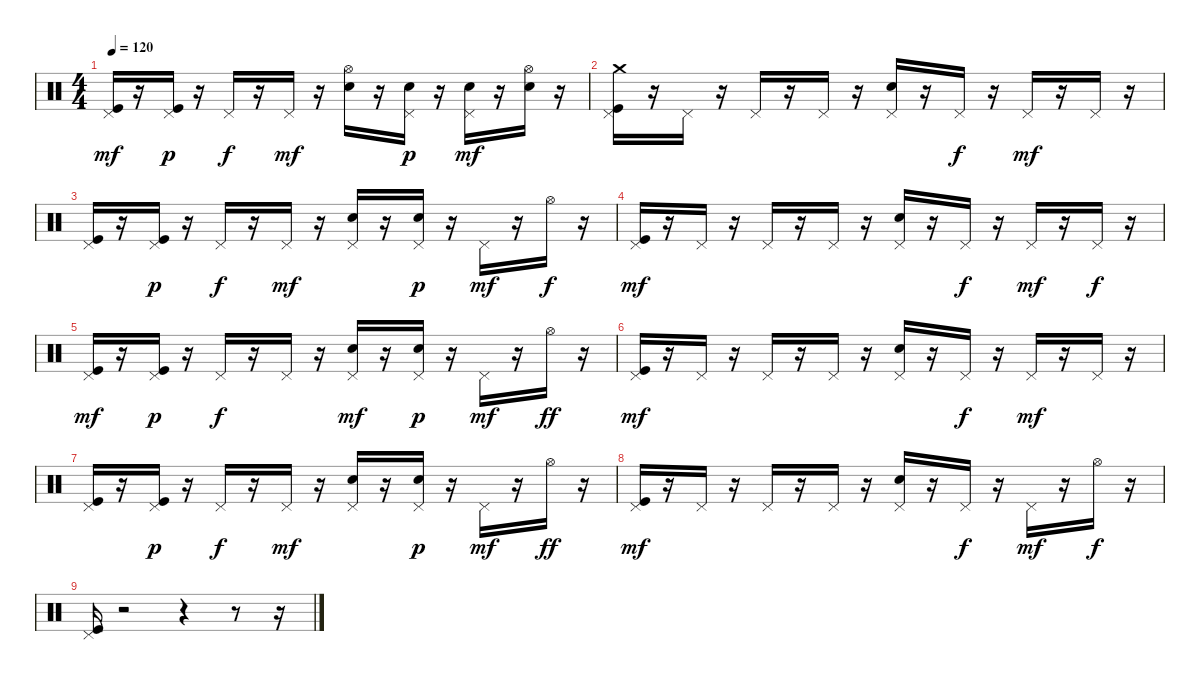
\track "" {instrument percussion}
\staff {score}
\articulation defaults
\ts (4 4)
\tempo 120
\clef neutral
\ks c
("Kick (hit)" "Pedal Hi-Hat (hit)").16{dy mf} r.16 ("Kick (hit)" "Pedal Hi-Hat (hit)").16{dy p} r.16 "Pedal Hi-Hat (hit)".16{dy f} r.16 "Pedal Hi-Hat (hit)".16{dy mf} r.16 ("Hi-Hat (open)" "Snare (hit) 2").16 r.16 ("Snare (hit) 2" "Pedal Hi-Hat (hit)").16{dy p} r.16 ("Snare (hit) 2" "Pedal Hi-Hat (hit)").16{dy mf} r.16 ("Hi-Hat (open)" "Snare (hit) 2").16 r.16 |
("Crash medium (hit)" "Kick (hit)" "Pedal Hi-Hat (hit)").16 r.16 "Pedal Hi-Hat (hit)".16 r.16 "Pedal Hi-Hat (hit)".16 r.16 "Pedal Hi-Hat (hit)".16 r.16 ("Snare (hit) 2" "Pedal Hi-Hat (hit)").16 r.16 "Pedal Hi-Hat (hit)".16{dy f} r.16 "Pedal Hi-Hat (hit)".16{dy mf} r.16 "Pedal Hi-Hat (hit)".16 r.16 |
("Kick (hit)" "Pedal Hi-Hat (hit)").16 r.16 ("Kick (hit)" "Pedal Hi-Hat (hit)").16{dy p} r.16 "Pedal Hi-Hat (hit)".16{dy f} r.16 "Pedal Hi-Hat (hit)".16{dy mf} r.16 ("Snare (hit) 2" "Pedal Hi-Hat (hit)").16 r.16 ("Snare (hit) 2" "Pedal Hi-Hat (hit)").16{dy p} r.16 "Pedal Hi-Hat (hit)".16{dy mf} r.16 "Hi-Hat (open)".16{dy f} r.16 |
("Kick (hit)" "Pedal Hi-Hat (hit)").16{dy mf} r.16 "Pedal Hi-Hat (hit)".16 r.16 "Pedal Hi-Hat (hit)".16 r.16 "Pedal Hi-Hat (hit)".16 r.16 ("Snare (hit) 2" "Pedal Hi-Hat (hit)").16 r.16 "Pedal Hi-Hat (hit)".16{dy f} r.16 "Pedal Hi-Hat (hit)".16{dy mf} r.16 "Pedal Hi-Hat (hit)".16{dy f} r.16 |
("Kick (hit)" "Pedal Hi-Hat (hit)").16{dy mf} r.16 ("Kick (hit)" "Pedal Hi-Hat (hit)").16{dy p} r.16 "Pedal Hi-Hat (hit)".16{dy f} r.16 "Pedal Hi-Hat (hit)".16 r.16 ("Snare (hit) 2" "Pedal Hi-Hat (hit)").16{dy mf} r.16 ("Snare (hit) 2" "Pedal Hi-Hat (hit)").16{dy p} r.16 "Pedal Hi-Hat (hit)".16{dy mf} r.16 "Hi-Hat (open)".16{dy ff} r.16 |
("Kick (hit)" "Pedal Hi-Hat (hit)").16{dy mf} r.16 "Pedal Hi-Hat (hit)".16 r.16 "Pedal Hi-Hat (hit)".16 r.16 "Pedal Hi-Hat (hit)".16 r.16 ("Snare (hit) 2" "Pedal Hi-Hat (hit)").16 r.16 "Pedal Hi-Hat (hit)".16{dy f} r.16 "Pedal Hi-Hat (hit)".16{dy mf} r.16 "Pedal Hi-Hat (hit)".16 r.16 |
("Kick (hit)" "Pedal Hi-Hat (hit)").16 r.16 ("Kick (hit)" "Pedal Hi-Hat (hit)").16{dy p} r.16 "Pedal Hi-Hat (hit)".16{dy f} r.16 "Pedal Hi-Hat (hit)".16{dy mf} r.16 ("Snare (hit) 2" "Pedal Hi-Hat (hit)").16 r.16 ("Snare (hit) 2" "Pedal Hi-Hat (hit)").16{dy p} r.16 "Pedal Hi-Hat (hit)".16{dy mf} r.16 "Hi-Hat (open)".16{dy ff} r.16 |
("Kick (hit)" "Pedal Hi-Hat (hit)").16{dy mf} r.16 "Pedal Hi-Hat (hit)".16 r.16 "Pedal Hi-Hat (hit)".16 r.16 "Pedal Hi-Hat (hit)".16 r.16 ("Snare (hit) 2" "Pedal Hi-Hat (hit)").16 r.16 "Pedal Hi-Hat (hit)".16{dy f} r.16 "Pedal Hi-Hat (hit)".16{dy mf} r.16 "Hi-Hat (open)".16{dy f} r.16 |
("Pedal Hi-Hat (hit)" "Kick (hit)").16 r.2 r.4 r.8 r.16
